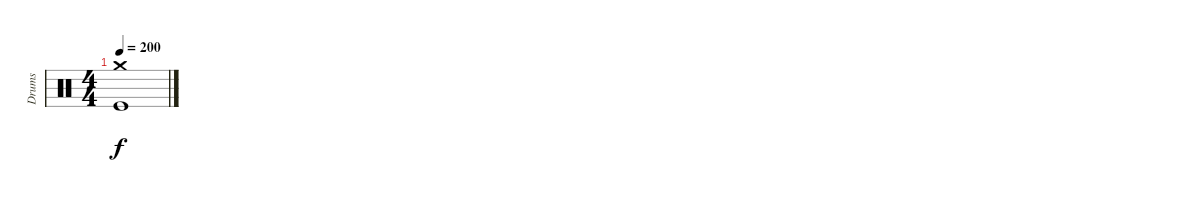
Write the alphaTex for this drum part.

\track ("Drums" "Drums") {instrument percussion}
\staff {score}
\articulation defaults
\ts (4 4)
\tempo 200
\clef neutral
\ks c
("Crash medium (hit)" "Kick (hit)").1{dy f}
